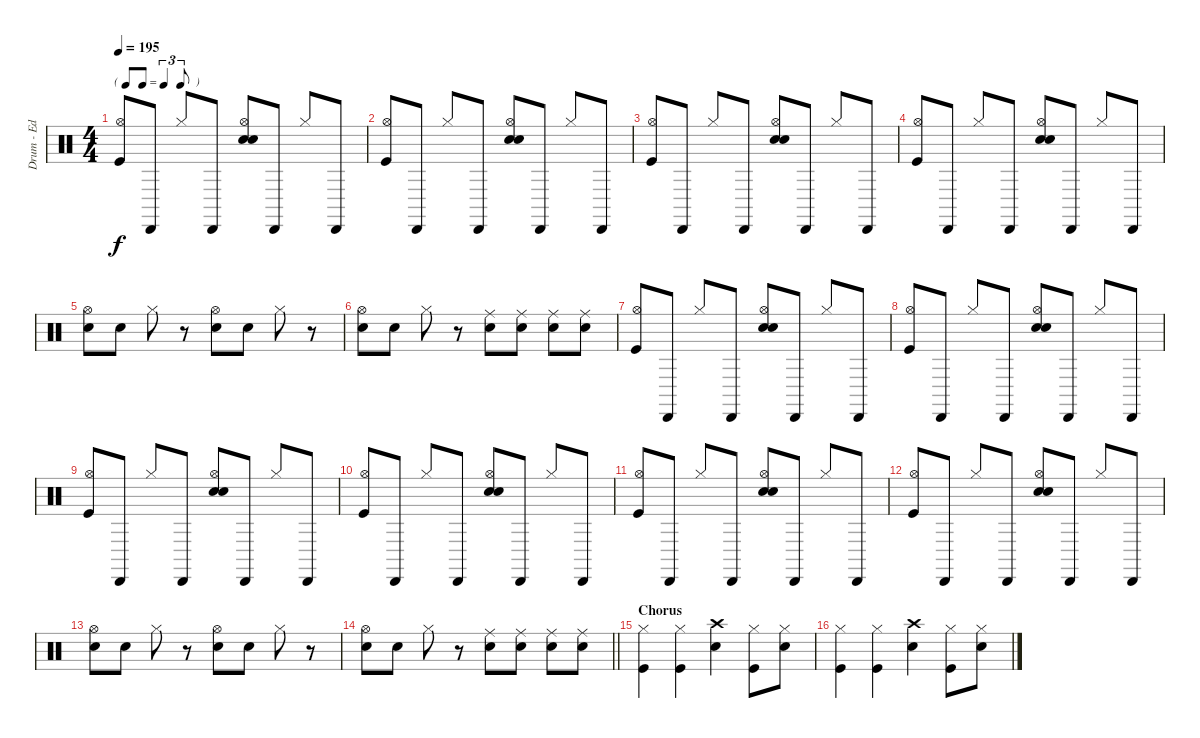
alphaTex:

\track ("Drum - Ed" "Drum - Ed") {instrument percussion}
\staff {score}
\articulation defaults
\ts (4 4)
\tf triplet8th
\tempo 195
\clef neutral
\ks c
("Hi-Hat (open)" "Kick (hit)").8{dy f} "Cabasa (hit)".8 "Hi-Hat (closed)".8 "Cabasa (hit)".8 ("Hi-Hat (open)" "Hand Clap (hit)" "Electric Snare (hit)").8 "Cabasa (hit)".8 "Hi-Hat (closed)".8 "Cabasa (hit)".8 |
("Hi-Hat (open)" "Kick (hit)").8 "Cabasa (hit)".8 "Hi-Hat (closed)".8 "Cabasa (hit)".8 ("Hi-Hat (open)" "Hand Clap (hit)" "Electric Snare (hit)").8 "Cabasa (hit)".8 "Hi-Hat (closed)".8 "Cabasa (hit)".8 |
("Hi-Hat (open)" "Kick (hit)").8 "Cabasa (hit)".8 "Hi-Hat (closed)".8 "Cabasa (hit)".8 ("Hi-Hat (open)" "Hand Clap (hit)" "Electric Snare (hit)").8 "Cabasa (hit)".8 "Hi-Hat (closed)".8 "Cabasa (hit)".8 |
("Hi-Hat (open)" "Kick (hit)").8 "Cabasa (hit)".8 "Hi-Hat (closed)".8 "Cabasa (hit)".8 ("Hi-Hat (open)" "Hand Clap (hit)" "Electric Snare (hit)").8 "Cabasa (hit)".8 "Hi-Hat (closed)".8 "Cabasa (hit)".8 |
("Hi-Hat (open)" "Electric Snare (hit)").8 "Electric Snare (hit)".8 "Hi-Hat (closed)".8 r.8 ("Hi-Hat (open)" "Electric Snare (hit)").8 "Electric Snare (hit)".8 "Hi-Hat (closed)".8 r.8 |
("Hi-Hat (open)" "Electric Snare (hit)").8 "Electric Snare (hit)".8 "Hi-Hat (closed)".8 r.8 ("Ride (middle)" "Electric Snare (hit)").8 ("Ride (middle)" "Electric Snare (hit)").8 ("Ride (middle)" "Electric Snare (hit)").8 ("Ride (middle)" "Electric Snare (hit)").8 |
("Hi-Hat (open)" "Kick (hit)").8 "Cabasa (hit)".8 "Hi-Hat (closed)".8 "Cabasa (hit)".8 ("Hi-Hat (open)" "Hand Clap (hit)" "Electric Snare (hit)").8 "Cabasa (hit)".8 "Hi-Hat (closed)".8 "Cabasa (hit)".8 |
("Hi-Hat (open)" "Kick (hit)").8 "Cabasa (hit)".8 "Hi-Hat (closed)".8 "Cabasa (hit)".8 ("Hi-Hat (open)" "Hand Clap (hit)" "Electric Snare (hit)").8 "Cabasa (hit)".8 "Hi-Hat (closed)".8 "Cabasa (hit)".8 |
("Hi-Hat (open)" "Kick (hit)").8 "Cabasa (hit)".8 "Hi-Hat (closed)".8 "Cabasa (hit)".8 ("Hi-Hat (open)" "Hand Clap (hit)" "Electric Snare (hit)").8 "Cabasa (hit)".8 "Hi-Hat (closed)".8 "Cabasa (hit)".8 |
("Hi-Hat (open)" "Kick (hit)").8 "Cabasa (hit)".8 "Hi-Hat (closed)".8 "Cabasa (hit)".8 ("Hi-Hat (open)" "Hand Clap (hit)" "Electric Snare (hit)").8 "Cabasa (hit)".8 "Hi-Hat (closed)".8 "Cabasa (hit)".8 |
("Hi-Hat (open)" "Kick (hit)").8 "Cabasa (hit)".8 "Hi-Hat (closed)".8 "Cabasa (hit)".8 ("Hi-Hat (open)" "Hand Clap (hit)" "Electric Snare (hit)").8 "Cabasa (hit)".8 "Hi-Hat (closed)".8 "Cabasa (hit)".8 |
("Hi-Hat (open)" "Kick (hit)").8 "Cabasa (hit)".8 "Hi-Hat (closed)".8 "Cabasa (hit)".8 ("Hi-Hat (open)" "Hand Clap (hit)" "Electric Snare (hit)").8 "Cabasa (hit)".8 "Hi-Hat (closed)".8 "Cabasa (hit)".8 |
("Hi-Hat (open)" "Electric Snare (hit)").8 "Electric Snare (hit)".8 "Hi-Hat (closed)".8 r.8 ("Hi-Hat (open)" "Electric Snare (hit)").8 "Electric Snare (hit)".8 "Hi-Hat (closed)".8 r.8 |
\barLineRight lightlight
("Hi-Hat (open)" "Electric Snare (hit)").8 "Electric Snare (hit)".8 "Hi-Hat (closed)".8 r.8 ("Ride (middle)" "Electric Snare (hit)").8 ("Ride (middle)" "Electric Snare (hit)").8 ("Ride (middle)" "Electric Snare (hit)").8 ("Ride (middle)" "Electric Snare (hit)").8 |
\section ("" "Chorus")
("Hi-Hat (closed)" "Kick (hit)").4 ("Hi-Hat (closed)" "Kick (hit)").4 ("Crash high (hit)" "Electric Snare (hit)").4 ("Hi-Hat (closed)" "Kick (hit)").8 ("Hi-Hat (closed)" "Electric Snare (hit)").8 |
("Hi-Hat (closed)" "Kick (hit)").4 ("Hi-Hat (closed)" "Kick (hit)").4 ("Crash high (hit)" "Electric Snare (hit)").4 ("Hi-Hat (closed)" "Kick (hit)").8 ("Hi-Hat (closed)" "Electric Snare (hit)").8
